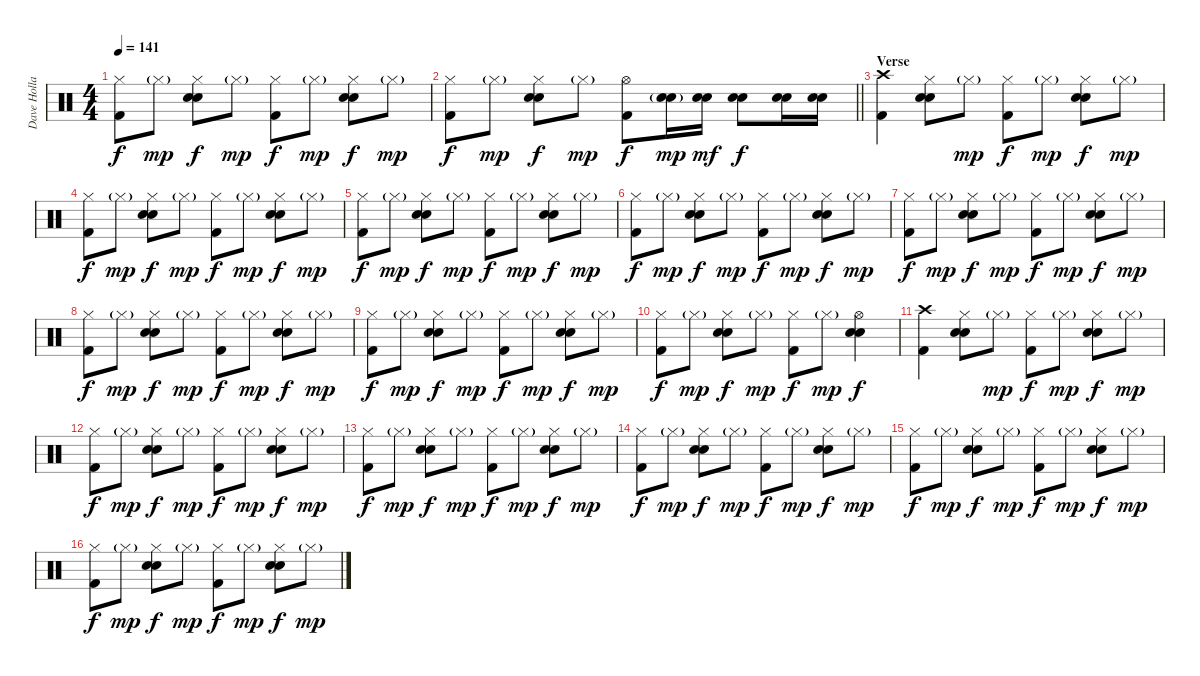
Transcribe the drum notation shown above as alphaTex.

\track ("Dave Holland" "Dave Holla") {instrument percussion}
\staff {score}
\articulation defaults
\ts (4 4)
\tempo 141
\clef neutral
\ks c
("Hi-Hat (closed)" "Kick (hit) 2").8{dy f} "Hi-Hat (closed)"{g}.8{dy mp} ("Hi-Hat (closed)" "Electric Snare (hit)" "Snare (hit) 2").8{dy f} "Hi-Hat (closed)"{g}.8{dy mp} ("Hi-Hat (closed)" "Kick (hit) 2").8{dy f} "Hi-Hat (closed)"{g}.8{dy mp} ("Hi-Hat (closed)" "Electric Snare (hit)" "Snare (hit) 2").8{dy f} "Hi-Hat (closed)"{g}.8{dy mp} |
\barLineRight lightlight
("Hi-Hat (closed)" "Kick (hit) 2").8{dy f} "Hi-Hat (closed)"{g}.8{dy mp} ("Hi-Hat (closed)" "Electric Snare (hit)" "Snare (hit) 2").8{dy f} "Hi-Hat (closed)"{g}.8{dy mp} ("Hi-Hat (open)" "Kick (hit) 2").8{dy f} ("Electric Snare (hit)"{g} "Snare (hit) 2"{g}).16{dy mp} ("Electric Snare (hit)" "Snare (hit) 2").16{dy mf} ("Electric Snare (hit)" "Snare (hit) 2").8{dy f} ("Electric Snare (hit)" "Snare (hit) 2").16 ("Electric Snare (hit)" "Snare (hit) 2").16 |
\section ("" "Verse")
("Crash high (hit)" "Kick (hit) 2").4 ("Hi-Hat (closed)" "Electric Snare (hit)" "Snare (hit) 2").8 "Hi-Hat (closed)"{g}.8{dy mp} ("Hi-Hat (closed)" "Kick (hit) 2").8{dy f} "Hi-Hat (closed)"{g}.8{dy mp} ("Hi-Hat (closed)" "Electric Snare (hit)" "Snare (hit) 2").8{dy f} "Hi-Hat (closed)"{g}.8{dy mp} |
("Hi-Hat (closed)" "Kick (hit) 2").8{dy f} "Hi-Hat (closed)"{g}.8{dy mp} ("Hi-Hat (closed)" "Electric Snare (hit)" "Snare (hit) 2").8{dy f} "Hi-Hat (closed)"{g}.8{dy mp} ("Hi-Hat (closed)" "Kick (hit) 2").8{dy f} "Hi-Hat (closed)"{g}.8{dy mp} ("Hi-Hat (closed)" "Electric Snare (hit)" "Snare (hit) 2").8{dy f} "Hi-Hat (closed)"{g}.8{dy mp} |
("Hi-Hat (closed)" "Kick (hit) 2").8{dy f} "Hi-Hat (closed)"{g}.8{dy mp} ("Hi-Hat (closed)" "Electric Snare (hit)" "Snare (hit) 2").8{dy f} "Hi-Hat (closed)"{g}.8{dy mp} ("Hi-Hat (closed)" "Kick (hit) 2").8{dy f} "Hi-Hat (closed)"{g}.8{dy mp} ("Hi-Hat (closed)" "Electric Snare (hit)" "Snare (hit) 2").8{dy f} "Hi-Hat (closed)"{g}.8{dy mp} |
("Hi-Hat (closed)" "Kick (hit) 2").8{dy f} "Hi-Hat (closed)"{g}.8{dy mp} ("Hi-Hat (closed)" "Electric Snare (hit)" "Snare (hit) 2").8{dy f} "Hi-Hat (closed)"{g}.8{dy mp} ("Hi-Hat (closed)" "Kick (hit) 2").8{dy f} "Hi-Hat (closed)"{g}.8{dy mp} ("Hi-Hat (closed)" "Electric Snare (hit)" "Snare (hit) 2").8{dy f} "Hi-Hat (closed)"{g}.8{dy mp} |
("Hi-Hat (closed)" "Kick (hit) 2").8{dy f} "Hi-Hat (closed)"{g}.8{dy mp} ("Hi-Hat (closed)" "Electric Snare (hit)" "Snare (hit) 2").8{dy f} "Hi-Hat (closed)"{g}.8{dy mp} ("Hi-Hat (closed)" "Kick (hit) 2").8{dy f} "Hi-Hat (closed)"{g}.8{dy mp} ("Hi-Hat (closed)" "Electric Snare (hit)" "Snare (hit) 2").8{dy f} "Hi-Hat (closed)"{g}.8{dy mp} |
("Hi-Hat (closed)" "Kick (hit) 2").8{dy f} "Hi-Hat (closed)"{g}.8{dy mp} ("Hi-Hat (closed)" "Electric Snare (hit)" "Snare (hit) 2").8{dy f} "Hi-Hat (closed)"{g}.8{dy mp} ("Hi-Hat (closed)" "Kick (hit) 2").8{dy f} "Hi-Hat (closed)"{g}.8{dy mp} ("Hi-Hat (closed)" "Electric Snare (hit)" "Snare (hit) 2").8{dy f} "Hi-Hat (closed)"{g}.8{dy mp} |
("Hi-Hat (closed)" "Kick (hit) 2").8{dy f} "Hi-Hat (closed)"{g}.8{dy mp} ("Hi-Hat (closed)" "Electric Snare (hit)" "Snare (hit) 2").8{dy f} "Hi-Hat (closed)"{g}.8{dy mp} ("Hi-Hat (closed)" "Kick (hit) 2").8{dy f} "Hi-Hat (closed)"{g}.8{dy mp} ("Hi-Hat (closed)" "Electric Snare (hit)" "Snare (hit) 2").8{dy f} "Hi-Hat (closed)"{g}.8{dy mp} |
("Hi-Hat (closed)" "Kick (hit) 2").8{dy f} "Hi-Hat (closed)"{g}.8{dy mp} ("Hi-Hat (closed)" "Electric Snare (hit)" "Snare (hit) 2").8{dy f} "Hi-Hat (closed)"{g}.8{dy mp} ("Hi-Hat (closed)" "Kick (hit) 2").8{dy f} "Hi-Hat (closed)"{g}.8{dy mp} ("Hi-Hat (open)" "Electric Snare (hit)" "Snare (hit) 2").4{dy f} |
("Crash high (hit)" "Kick (hit) 2").4 ("Hi-Hat (closed)" "Electric Snare (hit)" "Snare (hit) 2").8 "Hi-Hat (closed)"{g}.8{dy mp} ("Hi-Hat (closed)" "Kick (hit) 2").8{dy f} "Hi-Hat (closed)"{g}.8{dy mp} ("Hi-Hat (closed)" "Electric Snare (hit)" "Snare (hit) 2").8{dy f} "Hi-Hat (closed)"{g}.8{dy mp} |
("Hi-Hat (closed)" "Kick (hit) 2").8{dy f} "Hi-Hat (closed)"{g}.8{dy mp} ("Hi-Hat (closed)" "Electric Snare (hit)" "Snare (hit) 2").8{dy f} "Hi-Hat (closed)"{g}.8{dy mp} ("Hi-Hat (closed)" "Kick (hit) 2").8{dy f} "Hi-Hat (closed)"{g}.8{dy mp} ("Hi-Hat (closed)" "Electric Snare (hit)" "Snare (hit) 2").8{dy f} "Hi-Hat (closed)"{g}.8{dy mp} |
("Hi-Hat (closed)" "Kick (hit) 2").8{dy f} "Hi-Hat (closed)"{g}.8{dy mp} ("Hi-Hat (closed)" "Electric Snare (hit)" "Snare (hit) 2").8{dy f} "Hi-Hat (closed)"{g}.8{dy mp} ("Hi-Hat (closed)" "Kick (hit) 2").8{dy f} "Hi-Hat (closed)"{g}.8{dy mp} ("Hi-Hat (closed)" "Electric Snare (hit)" "Snare (hit) 2").8{dy f} "Hi-Hat (closed)"{g}.8{dy mp} |
("Hi-Hat (closed)" "Kick (hit) 2").8{dy f} "Hi-Hat (closed)"{g}.8{dy mp} ("Hi-Hat (closed)" "Electric Snare (hit)" "Snare (hit) 2").8{dy f} "Hi-Hat (closed)"{g}.8{dy mp} ("Hi-Hat (closed)" "Kick (hit) 2").8{dy f} "Hi-Hat (closed)"{g}.8{dy mp} ("Hi-Hat (closed)" "Electric Snare (hit)" "Snare (hit) 2").8{dy f} "Hi-Hat (closed)"{g}.8{dy mp} |
("Hi-Hat (closed)" "Kick (hit) 2").8{dy f} "Hi-Hat (closed)"{g}.8{dy mp} ("Hi-Hat (closed)" "Electric Snare (hit)" "Snare (hit) 2").8{dy f} "Hi-Hat (closed)"{g}.8{dy mp} ("Hi-Hat (closed)" "Kick (hit) 2").8{dy f} "Hi-Hat (closed)"{g}.8{dy mp} ("Hi-Hat (closed)" "Electric Snare (hit)" "Snare (hit) 2").8{dy f} "Hi-Hat (closed)"{g}.8{dy mp} |
("Hi-Hat (closed)" "Kick (hit) 2").8{dy f} "Hi-Hat (closed)"{g}.8{dy mp} ("Hi-Hat (closed)" "Electric Snare (hit)" "Snare (hit) 2").8{dy f} "Hi-Hat (closed)"{g}.8{dy mp} ("Hi-Hat (closed)" "Kick (hit) 2").8{dy f} "Hi-Hat (closed)"{g}.8{dy mp} ("Hi-Hat (closed)" "Electric Snare (hit)" "Snare (hit) 2").8{dy f} "Hi-Hat (closed)"{g}.8{dy mp}
